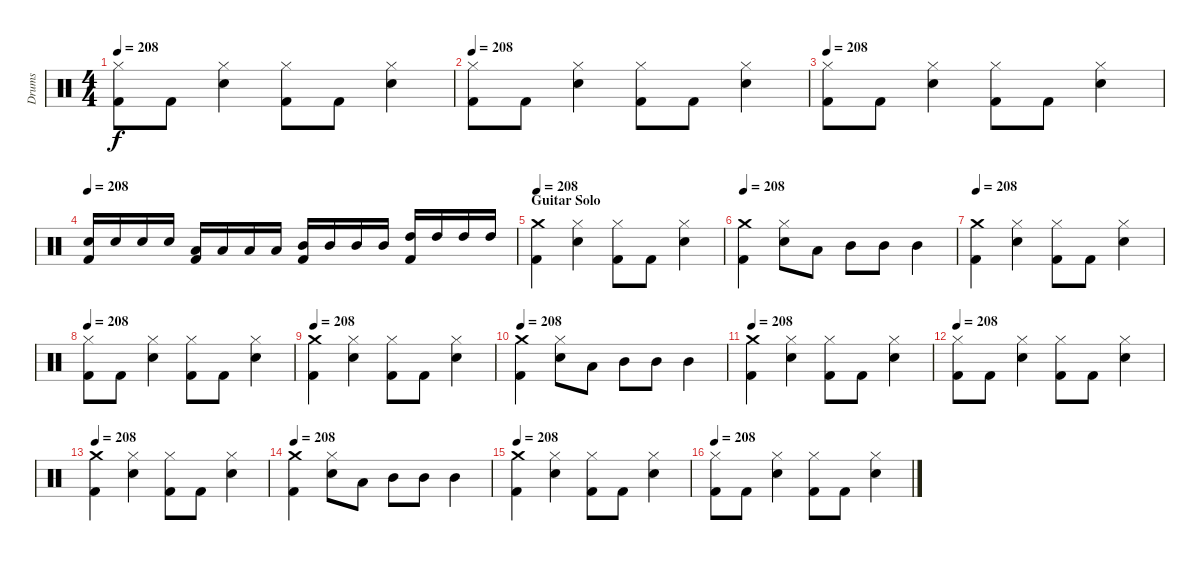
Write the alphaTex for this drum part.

\track ("Drums" "Drums") {instrument percussion}
\staff {score}
\articulation defaults
\ts (4 4)
\tempo 208
\clef neutral
\ks c
("Kick (hit) 2" "Hi-Hat (closed)").8{dy f} "Kick (hit) 2".8 ("Snare (hit) 2" "Hi-Hat (closed)").4 ("Kick (hit) 2" "Hi-Hat (closed)").8 "Kick (hit) 2".8 ("Snare (hit) 2" "Hi-Hat (closed)").4 |
\tempo 208
("Kick (hit) 2" "Hi-Hat (closed)").8 "Kick (hit) 2".8 ("Snare (hit) 2" "Hi-Hat (closed)").4 ("Kick (hit) 2" "Hi-Hat (closed)").8 "Kick (hit) 2".8 ("Snare (hit) 2" "Hi-Hat (closed)").4 |
\tempo 208
("Kick (hit) 2" "Hi-Hat (closed)").8 "Kick (hit) 2".8 ("Snare (hit) 2" "Hi-Hat (closed)").4 ("Kick (hit) 2" "Hi-Hat (closed)").8 "Kick (hit) 2".8 ("Snare (hit) 2" "Hi-Hat (closed)").4 |
\tempo 208
("Snare (hit) 2" "Kick (hit) 2").16 "Snare (hit) 2".16 "Snare (hit) 2".16 "Snare (hit) 2".16 ("Low Tom (hit)" "Kick (hit) 2").16 "Low Tom (hit)".16 "Low Tom (hit)".16 "Low Tom (hit)".16 ("Mid Tom (hit)" "Kick (hit) 2").16 "Mid Tom (hit)".16 "Mid Tom (hit)".16 "Mid Tom (hit)".16 ("High Tom (hit)" "Kick (hit) 2").16 "High Tom (hit)".16 "High Tom (hit)".16 "High Tom (hit)".16 |
\section ("" "Guitar Solo")
\tempo 208
("Kick (hit) 2" "Crash medium (hit)").4 ("Snare (hit) 2" "Hi-Hat (closed)").4 ("Kick (hit) 2" "Hi-Hat (closed)").8 "Kick (hit) 2".8 ("Snare (hit) 2" "Hi-Hat (closed)").4 |
\tempo 208
("Kick (hit) 2" "Crash medium (hit)").4 ("Snare (hit) 2" "Hi-Hat (closed)").8 "Low Tom (hit)".8 "Mid Tom (hit)".8 "Mid Tom (hit)".8 "Mid Tom (hit)".4 |
\tempo 208
("Kick (hit) 2" "Crash medium (hit)").4 ("Snare (hit) 2" "Hi-Hat (closed)").4 ("Kick (hit) 2" "Hi-Hat (closed)").8 "Kick (hit) 2".8 ("Snare (hit) 2" "Hi-Hat (closed)").4 |
\tempo 208
("Hi-Hat (closed)" "Kick (hit) 2").8 "Kick (hit) 2".8 ("Snare (hit) 2" "Hi-Hat (closed)").4 ("Hi-Hat (closed)" "Kick (hit) 2").8 "Kick (hit) 2".8 ("Snare (hit) 2" "Hi-Hat (closed)").4 |
\tempo 208
("Kick (hit) 2" "Crash medium (hit)").4 ("Snare (hit) 2" "Hi-Hat (closed)").4 ("Kick (hit) 2" "Hi-Hat (closed)").8 "Kick (hit) 2".8 ("Snare (hit) 2" "Hi-Hat (closed)").4 |
\tempo 208
("Kick (hit) 2" "Crash medium (hit)").4 ("Snare (hit) 2" "Hi-Hat (closed)").8 "Low Tom (hit)".8 "Mid Tom (hit)".8 "Mid Tom (hit)".8 "Mid Tom (hit)".4 |
\tempo 208
("Kick (hit) 2" "Crash medium (hit)").4 ("Snare (hit) 2" "Hi-Hat (closed)").4 ("Kick (hit) 2" "Hi-Hat (closed)").8 "Kick (hit) 2".8 ("Snare (hit) 2" "Hi-Hat (closed)").4 |
\tempo 208
("Hi-Hat (closed)" "Kick (hit) 2").8 "Kick (hit) 2".8 ("Snare (hit) 2" "Hi-Hat (closed)").4 ("Hi-Hat (closed)" "Kick (hit) 2").8 "Kick (hit) 2".8 ("Snare (hit) 2" "Hi-Hat (closed)").4 |
\tempo 208
("Kick (hit) 2" "Crash medium (hit)").4 ("Snare (hit) 2" "Hi-Hat (closed)").4 ("Kick (hit) 2" "Hi-Hat (closed)").8 "Kick (hit) 2".8 ("Snare (hit) 2" "Hi-Hat (closed)").4 |
\tempo 208
("Kick (hit) 2" "Crash medium (hit)").4 ("Snare (hit) 2" "Hi-Hat (closed)").8 "Low Tom (hit)".8 "Mid Tom (hit)".8 "Mid Tom (hit)".8 "Mid Tom (hit)".4 |
\tempo 208
("Kick (hit) 2" "Crash medium (hit)").4 ("Snare (hit) 2" "Hi-Hat (closed)").4 ("Kick (hit) 2" "Hi-Hat (closed)").8 "Kick (hit) 2".8 ("Snare (hit) 2" "Hi-Hat (closed)").4 |
\tempo 208
("Hi-Hat (closed)" "Kick (hit) 2").8 "Kick (hit) 2".8 ("Snare (hit) 2" "Hi-Hat (closed)").4 ("Hi-Hat (closed)" "Kick (hit) 2").8 "Kick (hit) 2".8 ("Snare (hit) 2" "Hi-Hat (closed)").4
